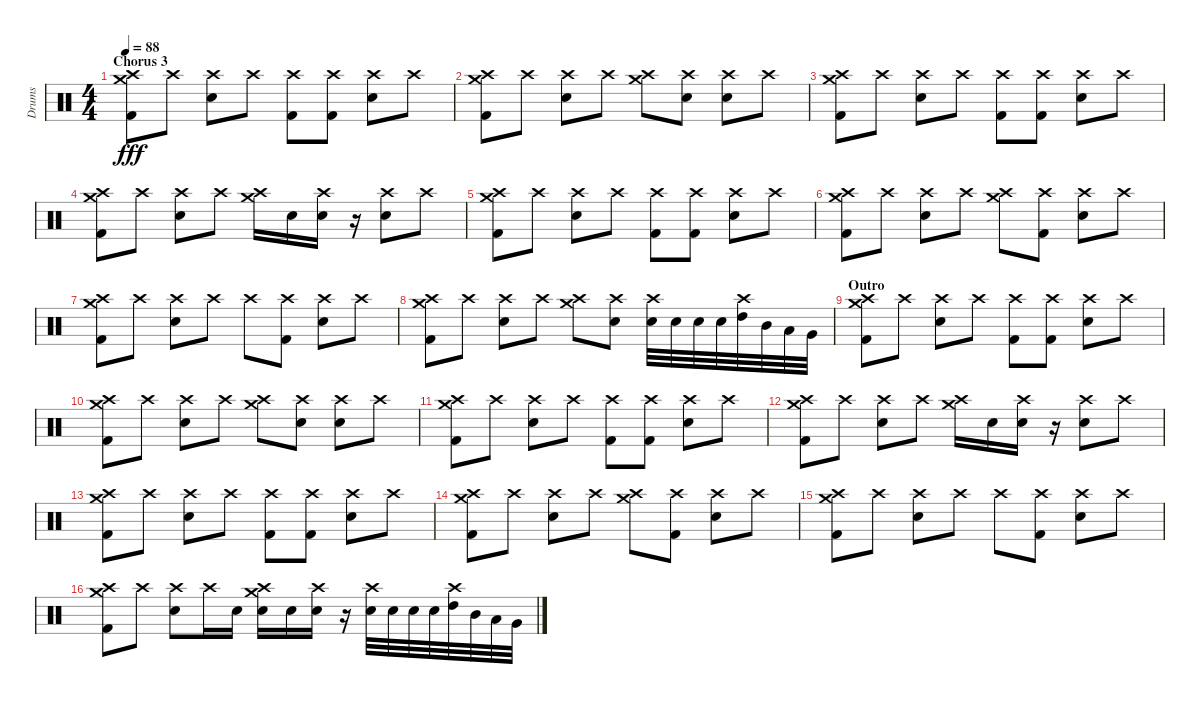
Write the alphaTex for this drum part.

\track ("Drums" "Drums") {instrument percussion}
\staff {score}
\articulation defaults
\ts (4 4)
\section ("" "Chorus 3")
\tempo 88
\clef neutral
\ks c
("Crash high (hit)" "Crash medium (hit)" "Kick (hit) 2").8{dy fff} "Crash high (hit)".8 ("Crash high (hit)" "Electric Snare (hit)").8 "Crash high (hit)".8 ("Crash high (hit)" "Kick (hit) 2").8 ("Crash high (hit)" "Kick (hit) 2").8 ("Crash high (hit)" "Electric Snare (hit)").8 "Crash high (hit)".8 |
("Crash high (hit)" "Crash medium (hit)" "Kick (hit) 2").8 "Crash high (hit)".8 ("Crash high (hit)" "Electric Snare (hit)").8 "Crash high (hit)".8 ("Crash high (hit)" "Crash medium (hit)").8 ("Crash high (hit)" "Electric Snare (hit)").8 ("Crash high (hit)" "Electric Snare (hit)").8 "Crash high (hit)".8 |
("Crash high (hit)" "Crash medium (hit)" "Kick (hit) 2").8 "Crash high (hit)".8 ("Crash high (hit)" "Electric Snare (hit)").8 "Crash high (hit)".8 ("Crash high (hit)" "Kick (hit) 2").8 ("Crash high (hit)" "Kick (hit) 2").8 ("Crash high (hit)" "Electric Snare (hit)").8 "Crash high (hit)".8 |
("Crash high (hit)" "Crash medium (hit)" "Kick (hit) 2").8 "Crash high (hit)".8 ("Crash high (hit)" "Electric Snare (hit)").8 "Crash high (hit)".8 ("Crash high (hit)" "Crash medium (hit)").16 "Electric Snare (hit)".16 ("Crash high (hit)" "Electric Snare (hit)").16 r.16 ("Crash high (hit)" "Electric Snare (hit)").8 "Crash high (hit)".8 |
("Crash high (hit)" "Crash medium (hit)" "Kick (hit) 2").8 "Crash high (hit)".8 ("Crash high (hit)" "Electric Snare (hit)").8 "Crash high (hit)".8 ("Crash high (hit)" "Kick (hit) 2").8 ("Crash high (hit)" "Kick (hit) 2").8 ("Crash high (hit)" "Electric Snare (hit)").8 "Crash high (hit)".8 |
("Crash high (hit)" "Crash medium (hit)" "Kick (hit) 2").8 "Crash high (hit)".8 ("Crash high (hit)" "Electric Snare (hit)").8 "Crash high (hit)".8 ("Crash high (hit)" "Crash medium (hit)").8 ("Crash high (hit)" "Kick (hit) 2").8 ("Crash high (hit)" "Electric Snare (hit)").8 "Crash high (hit)".8 |
("Crash high (hit)" "Crash medium (hit)" "Kick (hit) 2").8 "Crash high (hit)".8 ("Crash high (hit)" "Electric Snare (hit)").8 "Crash high (hit)".8 "Crash high (hit)".8 ("Crash high (hit)" "Kick (hit) 2").8 ("Crash high (hit)" "Electric Snare (hit)").8 "Crash high (hit)".8 |
("Crash high (hit)" "Crash medium (hit)" "Kick (hit) 2").8 "Crash high (hit)".8 ("Crash high (hit)" "Electric Snare (hit)").8 "Crash high (hit)".8 ("Crash high (hit)" "Crash medium (hit)").8 ("Crash high (hit)" "Electric Snare (hit)").8 ("Crash high (hit)" "Electric Snare (hit)").32 "Electric Snare (hit)".32 "Electric Snare (hit)".32 "Electric Snare (hit)".32 ("Crash high (hit)" "High Tom (hit)").32 "Mid Tom (hit)".32 "Low Tom (hit)".32 "Very Low Tom (hit)".32 |
\section ("" "Outro")
("Crash high (hit)" "Crash medium (hit)" "Kick (hit) 2").8 "Crash high (hit)".8 ("Crash high (hit)" "Electric Snare (hit)").8 "Crash high (hit)".8 ("Crash high (hit)" "Kick (hit) 2").8 ("Crash high (hit)" "Kick (hit) 2").8 ("Crash high (hit)" "Electric Snare (hit)").8 "Crash high (hit)".8 |
("Crash high (hit)" "Crash medium (hit)" "Kick (hit) 2").8 "Crash high (hit)".8 ("Crash high (hit)" "Electric Snare (hit)").8 "Crash high (hit)".8 ("Crash high (hit)" "Crash medium (hit)").8 ("Crash high (hit)" "Electric Snare (hit)").8 ("Crash high (hit)" "Electric Snare (hit)").8 "Crash high (hit)".8 |
("Crash high (hit)" "Crash medium (hit)" "Kick (hit) 2").8 "Crash high (hit)".8 ("Crash high (hit)" "Electric Snare (hit)").8 "Crash high (hit)".8 ("Crash high (hit)" "Kick (hit) 2").8 ("Crash high (hit)" "Kick (hit) 2").8 ("Crash high (hit)" "Electric Snare (hit)").8 "Crash high (hit)".8 |
("Crash high (hit)" "Crash medium (hit)" "Kick (hit) 2").8 "Crash high (hit)".8 ("Crash high (hit)" "Electric Snare (hit)").8 "Crash high (hit)".8 ("Crash high (hit)" "Crash medium (hit)").16 "Electric Snare (hit)".16 ("Crash high (hit)" "Electric Snare (hit)").16 r.16 ("Crash high (hit)" "Electric Snare (hit)").8 "Crash high (hit)".8 |
("Crash high (hit)" "Crash medium (hit)" "Kick (hit) 2").8 "Crash high (hit)".8 ("Crash high (hit)" "Electric Snare (hit)").8 "Crash high (hit)".8 ("Crash high (hit)" "Kick (hit) 2").8 ("Crash high (hit)" "Kick (hit) 2").8 ("Crash high (hit)" "Electric Snare (hit)").8 "Crash high (hit)".8 |
("Crash high (hit)" "Crash medium (hit)" "Kick (hit) 2").8 "Crash high (hit)".8 ("Crash high (hit)" "Electric Snare (hit)").8 "Crash high (hit)".8 ("Crash high (hit)" "Crash medium (hit)").8 ("Crash high (hit)" "Kick (hit) 2").8 ("Crash high (hit)" "Electric Snare (hit)").8 "Crash high (hit)".8 |
("Crash high (hit)" "Crash medium (hit)" "Kick (hit) 2").8 "Crash high (hit)".8 ("Crash high (hit)" "Electric Snare (hit)").8 "Crash high (hit)".8 "Crash high (hit)".8 ("Crash high (hit)" "Kick (hit) 2").8 ("Crash high (hit)" "Electric Snare (hit)").8 "Crash high (hit)".8 |
("Crash high (hit)" "Crash medium (hit)" "Kick (hit) 2").8 "Crash high (hit)".8 ("Crash high (hit)" "Electric Snare (hit)").8 "Crash high (hit)".16 "Electric Snare (hit)".16 ("Crash high (hit)" "Crash medium (hit)" "Electric Snare (hit)").16 "Electric Snare (hit)".16 ("Crash high (hit)" "Electric Snare (hit)").16 r.16 ("Crash high (hit)" "Electric Snare (hit)").32 "Electric Snare (hit)".32 "Electric Snare (hit)".32 "Electric Snare (hit)".32 ("Crash high (hit)" "High Tom (hit)").32 "Mid Tom (hit)".32 "Low Tom (hit)".32 "Very Low Tom (hit)".32
